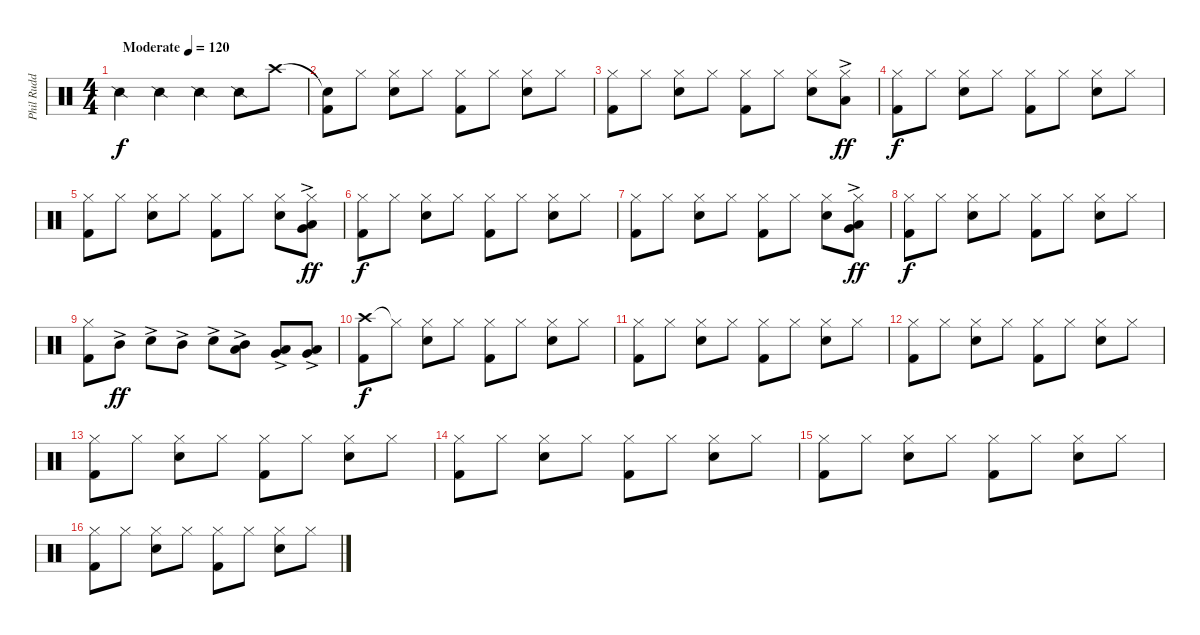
\track ("Phil Rudd" "Phil Rudd") {instrument percussion}
\staff {score}
\articulation defaults
\ts (4 4)
\tempo (120 "Moderate")
\clef neutral
\ks c "Snare (side stick) 2".4{dy f} "Snare (side stick) 2".4 "Snare (side stick) 2".4 "Snare (side stick) 2".8 "Crash high (hit)".8
|
("Snare (hit)"{t} "Kick (hit) 2").8 "Hi-Hat (closed)".8 ("Hi-Hat (closed)" "Snare (hit) 2").8 "Hi-Hat (closed)".8 ("Hi-Hat (closed)" "Kick (hit) 2").8 "Hi-Hat (closed)".8 ("Hi-Hat (closed)" "Snare (hit) 2").8 "Hi-Hat (closed)".8 |
("Hi-Hat (closed)" "Kick (hit) 2").8 "Hi-Hat (closed)".8 ("Hi-Hat (closed)" "Snare (hit) 2").8 "Hi-Hat (closed)".8 ("Hi-Hat (closed)" "Kick (hit) 2").8 "Hi-Hat (closed)".8 ("Hi-Hat (closed)" "Snare (hit) 2").8 ("Hi-Hat (closed)" "Low Tom (hit)"{ac}).8{dy ff} |
("Hi-Hat (closed)" "Kick (hit) 2").8{dy f} "Hi-Hat (closed)".8 ("Hi-Hat (closed)" "Snare (hit) 2").8 "Hi-Hat (closed)".8 ("Hi-Hat (closed)" "Kick (hit) 2").8 "Hi-Hat (closed)".8 ("Hi-Hat (closed)" "Snare (hit) 2").8 "Hi-Hat (closed)".8 |
("Hi-Hat (closed)" "Kick (hit) 2").8 "Hi-Hat (closed)".8 ("Hi-Hat (closed)" "Snare (hit) 2").8 "Hi-Hat (closed)".8 ("Hi-Hat (closed)" "Kick (hit) 2").8 "Hi-Hat (closed)".8 ("Hi-Hat (closed)" "Snare (hit) 2").8 ("Hi-Hat (closed)" "Low Tom (hit)"{ac} "Very Low Tom (hit)").8{dy ff} |
("Hi-Hat (closed)" "Kick (hit) 2").8{dy f} "Hi-Hat (closed)".8 ("Hi-Hat (closed)" "Snare (hit) 2").8 "Hi-Hat (closed)".8 ("Hi-Hat (closed)" "Kick (hit) 2").8 "Hi-Hat (closed)".8 ("Hi-Hat (closed)" "Snare (hit) 2").8 "Hi-Hat (closed)".8 |
("Hi-Hat (closed)" "Kick (hit) 2").8 "Hi-Hat (closed)".8 ("Hi-Hat (closed)" "Snare (hit) 2").8 "Hi-Hat (closed)".8 ("Hi-Hat (closed)" "Kick (hit) 2").8 "Hi-Hat (closed)".8 ("Hi-Hat (closed)" "Snare (hit) 2").8 ("Hi-Hat (closed)" "Low Tom (hit)"{ac} "Very Low Tom (hit)").8{dy ff} |
("Hi-Hat (closed)" "Kick (hit) 2").8{dy f} "Hi-Hat (closed)".8 ("Hi-Hat (closed)" "Snare (hit) 2").8 "Hi-Hat (closed)".8 ("Hi-Hat (closed)" "Kick (hit) 2").8 "Hi-Hat (closed)".8 ("Hi-Hat (closed)" "Snare (hit) 2").8 "Hi-Hat (closed)".8 |
("Hi-Hat (closed)" "Kick (hit) 2").8 "Mid Tom (hit)"{ac}.8{dy ff} "Snare (hit) 2"{ac}.8 "Mid Tom (hit)"{ac}.8 "Snare (hit) 2"{ac}.8 ("Mid Tom (hit)"{ac} "Low Tom (hit)").8 ("Low Tom (hit)" "Very Low Tom (hit)"{ac}).8 ("Very Low Tom (hit)"{ac} "Low Floor Tom (hit)").8 |
("Crash high (hit)" "Kick (hit) 2").8{dy f} "Hi-Hat (closed)"{t}.8 ("Hi-Hat (closed)" "Snare (hit) 2").8 "Hi-Hat (closed)".8 ("Hi-Hat (closed)" "Kick (hit) 2").8 "Hi-Hat (closed)".8 ("Hi-Hat (closed)" "Snare (hit) 2").8 "Hi-Hat (closed)".8 |
("Hi-Hat (closed)" "Kick (hit) 2").8 "Hi-Hat (closed)".8 ("Hi-Hat (closed)" "Snare (hit) 2").8 "Hi-Hat (closed)".8 ("Hi-Hat (closed)" "Kick (hit) 2").8 "Hi-Hat (closed)".8 ("Hi-Hat (closed)" "Snare (hit) 2").8 "Hi-Hat (closed)".8 |
("Hi-Hat (closed)" "Kick (hit) 2").8 "Hi-Hat (closed)".8 ("Hi-Hat (closed)" "Snare (hit) 2").8 "Hi-Hat (closed)".8 ("Hi-Hat (closed)" "Kick (hit) 2").8 "Hi-Hat (closed)".8 ("Hi-Hat (closed)" "Snare (hit) 2").8 "Hi-Hat (closed)".8 |
("Hi-Hat (closed)" "Kick (hit) 2").8 "Hi-Hat (closed)".8 ("Hi-Hat (closed)" "Snare (hit) 2").8 "Hi-Hat (closed)".8 ("Hi-Hat (closed)" "Kick (hit) 2").8 "Hi-Hat (closed)".8 ("Hi-Hat (closed)" "Snare (hit) 2").8 "Hi-Hat (closed)".8 |
("Hi-Hat (closed)" "Kick (hit) 2").8 "Hi-Hat (closed)".8 ("Hi-Hat (closed)" "Snare (hit) 2").8 "Hi-Hat (closed)".8 ("Hi-Hat (closed)" "Kick (hit) 2").8 "Hi-Hat (closed)".8 ("Hi-Hat (closed)" "Snare (hit) 2").8 "Hi-Hat (closed)".8 |
("Hi-Hat (closed)" "Kick (hit) 2").8 "Hi-Hat (closed)".8 ("Hi-Hat (closed)" "Snare (hit) 2").8 "Hi-Hat (closed)".8 ("Hi-Hat (closed)" "Kick (hit) 2").8 "Hi-Hat (closed)".8 ("Hi-Hat (closed)" "Snare (hit) 2").8 "Hi-Hat (closed)".8 |
("Hi-Hat (closed)" "Kick (hit) 2").8 "Hi-Hat (closed)".8 ("Hi-Hat (closed)" "Snare (hit) 2").8 "Hi-Hat (closed)".8 ("Hi-Hat (closed)" "Kick (hit) 2").8 "Hi-Hat (closed)".8 ("Hi-Hat (closed)" "Snare (hit) 2").8 "Hi-Hat (closed)".8
